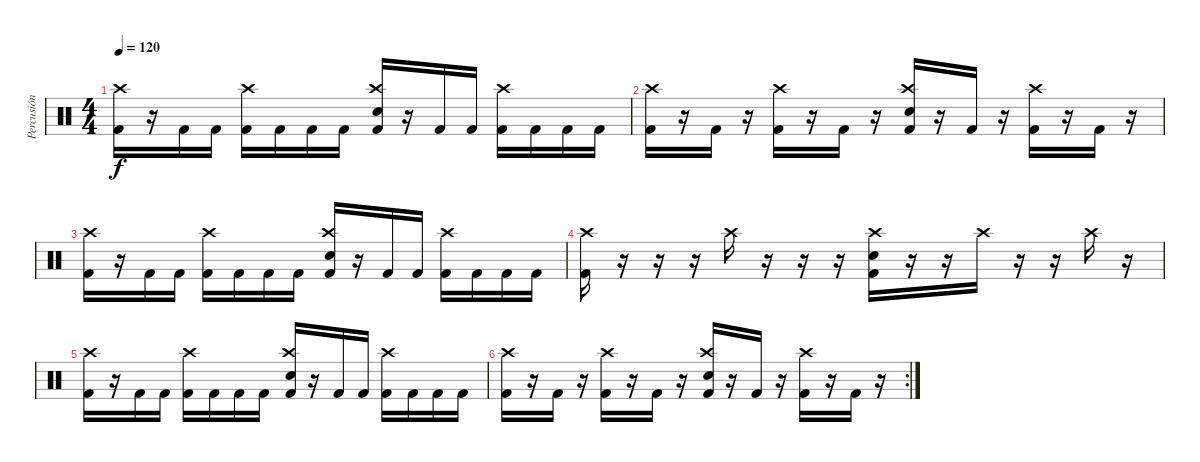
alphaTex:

\track ("Percusión" "Percusión") {instrument percussion}
\staff {score}
\articulation defaults
\ts (4 4)
\tempo 120
\clef neutral
\ks c
("Kick (hit) 2" "Crash high (hit)").16{dy f} r.16 "Kick (hit) 2".16 "Kick (hit) 2".16 ("Kick (hit) 2" "Crash high (hit)").16 "Kick (hit) 2".16 "Kick (hit) 2".16 "Kick (hit) 2".16 ("Kick (hit) 2" "Electric Snare (hit)" "Crash high (hit)").16 r.16 "Kick (hit) 2".16 "Kick (hit) 2".16 ("Kick (hit) 2" "Crash high (hit)").16 "Kick (hit) 2".16 "Kick (hit) 2".16 "Kick (hit) 2".16 |
("Kick (hit) 2" "Crash high (hit)").16 r.16 "Kick (hit) 2".16 r.16 ("Kick (hit) 2" "Crash high (hit)").16 r.16 "Kick (hit) 2".16 r.16 ("Kick (hit) 2" "Electric Snare (hit)" "Crash high (hit)").16 r.16 "Kick (hit) 2".16 r.16 ("Kick (hit) 2" "Crash high (hit)").16 r.16 "Kick (hit) 2".16 r.16 |
("Kick (hit) 2" "Crash high (hit)").16 r.16 "Kick (hit) 2".16 "Kick (hit) 2".16 ("Kick (hit) 2" "Crash high (hit)").16 "Kick (hit) 2".16 "Kick (hit) 2".16 "Kick (hit) 2".16 ("Kick (hit) 2" "Electric Snare (hit)" "Crash high (hit)").16 r.16 "Kick (hit) 2".16 "Kick (hit) 2".16 ("Kick (hit) 2" "Crash high (hit)").16 "Kick (hit) 2".16 "Kick (hit) 2".16 "Kick (hit) 2".16 |
("Kick (hit) 2" "Crash high (hit)").16 r.16 r.16 r.16 "Crash high (hit)".16 r.16 r.16 r.16 ("Kick (hit) 2" "Electric Snare (hit)" "Crash high (hit)").16 r.16 r.16 "Crash high (hit)".16 r.16 r.16 "Crash high (hit)".16 r.16 |
("Kick (hit) 2" "Crash high (hit)").16 r.16 "Kick (hit) 2".16 "Kick (hit) 2".16 ("Kick (hit) 2" "Crash high (hit)").16 "Kick (hit) 2".16 "Kick (hit) 2".16 "Kick (hit) 2".16 ("Kick (hit) 2" "Electric Snare (hit)" "Crash high (hit)").16 r.16 "Kick (hit) 2".16 "Kick (hit) 2".16 ("Kick (hit) 2" "Crash high (hit)").16 "Kick (hit) 2".16 "Kick (hit) 2".16 "Kick (hit) 2".16 |
\rc 2
("Kick (hit) 2" "Crash high (hit)").16 r.16 "Kick (hit) 2".16 r.16 ("Kick (hit) 2" "Crash high (hit)").16 r.16 "Kick (hit) 2".16 r.16 ("Kick (hit) 2" "Electric Snare (hit)" "Crash high (hit)").16 r.16 "Kick (hit) 2".16 r.16 ("Kick (hit) 2" "Crash high (hit)").16 r.16 "Kick (hit) 2".16 r.16
